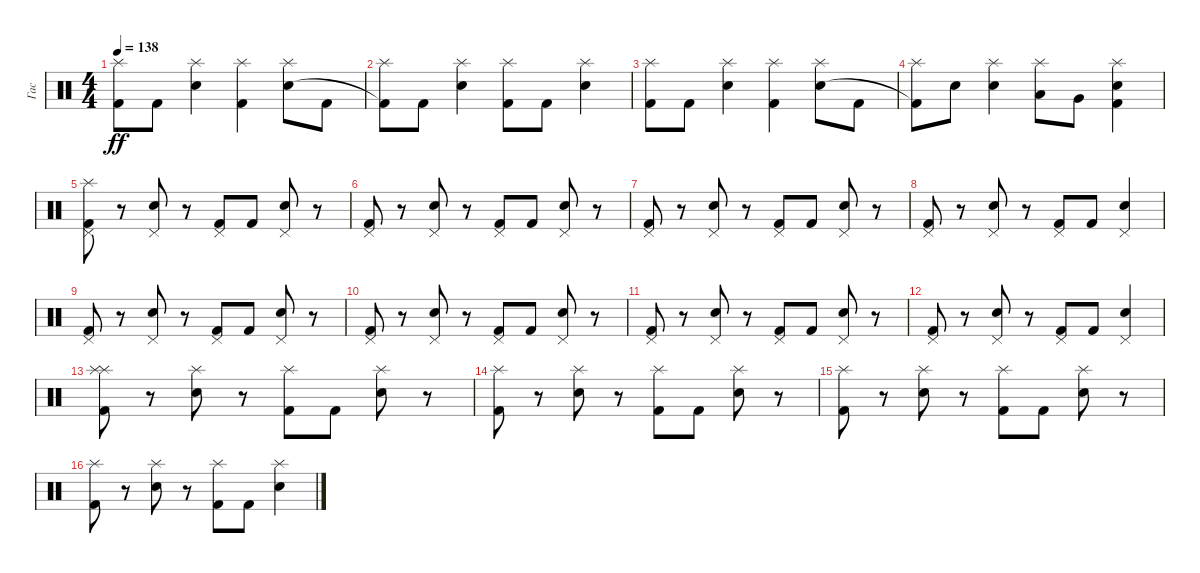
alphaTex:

\track ("Гас" "Гас") {instrument percussion}
\staff {score}
\articulation defaults
\ts (4 4)
\tempo 138
\clef neutral
\ks c
("Splash (hit)" "Kick (hit) 2").8{dy ff} "Kick (hit) 2".8 ("Splash (hit)" "Electric Snare (hit)").4 ("Splash (hit)" "Kick (hit) 2").4 ("Splash (hit)" "Electric Snare (hit)").8 "Kick (hit) 2".8 |
("Splash (hit)" "Kick (hit) 2"{t}).8 "Kick (hit) 2".8 ("Splash (hit)" "Electric Snare (hit)").4 ("Splash (hit)" "Kick (hit) 2").8 "Kick (hit) 2".8 ("Splash (hit)" "Electric Snare (hit)").4 |
("Splash (hit)" "Kick (hit) 2").8 "Kick (hit) 2".8 ("Splash (hit)" "Electric Snare (hit)").4 ("Splash (hit)" "Kick (hit) 2").4 ("Splash (hit)" "Electric Snare (hit)").8 "Kick (hit) 2".8 |
("Splash (hit)" "Kick (hit) 2"{t}).8 "Electric Snare (hit)".8 ("Splash (hit)" "Electric Snare (hit)").4 ("Splash (hit)" "Low Tom (hit)").8 "Very Low Tom (hit)".8 ("Splash (hit)" "Electric Snare (hit)" "Kick (hit) 2").4 |
("Pedal Hi-Hat (hit)" "Splash (hit)" "Kick (hit) 2").8 r.8 ("Pedal Hi-Hat (hit)" "Electric Snare (hit)").8 r.8 ("Pedal Hi-Hat (hit)" "Kick (hit) 2").8 "Kick (hit) 2".8 ("Pedal Hi-Hat (hit)" "Electric Snare (hit)").8 r.8 |
("Pedal Hi-Hat (hit)" "Kick (hit) 2").8 r.8 ("Pedal Hi-Hat (hit)" "Electric Snare (hit)").8 r.8 ("Pedal Hi-Hat (hit)" "Kick (hit) 2").8 "Kick (hit) 2".8 ("Pedal Hi-Hat (hit)" "Electric Snare (hit)").8 r.8 |
("Pedal Hi-Hat (hit)" "Kick (hit) 2").8 r.8 ("Pedal Hi-Hat (hit)" "Electric Snare (hit)").8 r.8 ("Pedal Hi-Hat (hit)" "Kick (hit) 2").8 "Kick (hit) 2".8 ("Pedal Hi-Hat (hit)" "Electric Snare (hit)").8 r.8 |
("Pedal Hi-Hat (hit)" "Kick (hit) 2").8 r.8 ("Pedal Hi-Hat (hit)" "Electric Snare (hit)").8 r.8 ("Pedal Hi-Hat (hit)" "Kick (hit) 2").8 "Kick (hit) 2".8 ("Pedal Hi-Hat (hit)" "Electric Snare (hit)").4 |
("Pedal Hi-Hat (hit)" "Kick (hit) 2").8 r.8 ("Pedal Hi-Hat (hit)" "Electric Snare (hit)").8 r.8 ("Pedal Hi-Hat (hit)" "Kick (hit) 2").8 "Kick (hit) 2".8 ("Pedal Hi-Hat (hit)" "Electric Snare (hit)").8 r.8 |
("Pedal Hi-Hat (hit)" "Kick (hit) 2").8 r.8 ("Pedal Hi-Hat (hit)" "Electric Snare (hit)").8 r.8 ("Pedal Hi-Hat (hit)" "Kick (hit) 2").8 "Kick (hit) 2".8 ("Pedal Hi-Hat (hit)" "Electric Snare (hit)").8 r.8 |
("Pedal Hi-Hat (hit)" "Kick (hit) 2").8 r.8 ("Pedal Hi-Hat (hit)" "Electric Snare (hit)").8 r.8 ("Pedal Hi-Hat (hit)" "Kick (hit) 2").8 "Kick (hit) 2".8 ("Pedal Hi-Hat (hit)" "Electric Snare (hit)").8 r.8 |
("Pedal Hi-Hat (hit)" "Kick (hit) 2").8 r.8 ("Pedal Hi-Hat (hit)" "Electric Snare (hit)").8 r.8 ("Pedal Hi-Hat (hit)" "Kick (hit) 2").8 "Kick (hit) 2".8 ("Pedal Hi-Hat (hit)" "Electric Snare (hit)").4 |
("Splash (hit)" "Splash (hit)" "Kick (hit) 2").8 r.8 ("Splash (hit)" "Electric Snare (hit)").8 r.8 ("Splash (hit)" "Kick (hit) 2").8 "Kick (hit) 2".8 ("Splash (hit)" "Electric Snare (hit)").8 r.8 |
("Splash (hit)" "Kick (hit) 2").8 r.8 ("Splash (hit)" "Electric Snare (hit)").8 r.8 ("Splash (hit)" "Kick (hit) 2").8 "Kick (hit) 2".8 ("Splash (hit)" "Electric Snare (hit)").8 r.8 |
("Splash (hit)" "Kick (hit) 2").8 r.8 ("Splash (hit)" "Electric Snare (hit)").8 r.8 ("Splash (hit)" "Kick (hit) 2").8 "Kick (hit) 2".8 ("Splash (hit)" "Electric Snare (hit)").8 r.8 |
("Splash (hit)" "Kick (hit) 2").8 r.8 ("Splash (hit)" "Electric Snare (hit)").8 r.8 ("Splash (hit)" "Kick (hit) 2").8 "Kick (hit) 2".8 ("Splash (hit)" "Electric Snare (hit)").4
